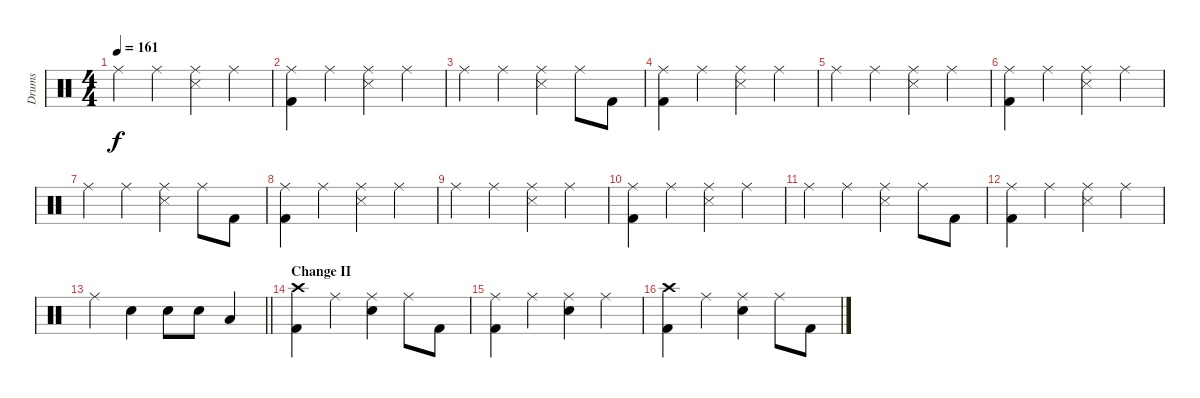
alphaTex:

\track ("Drums" "Drums") {instrument percussion}
\staff {score}
\articulation defaults
\ts (4 4)
\tempo 161
\clef neutral
\ks c "Ride (middle)".4{dy f} "Ride (middle)".4
("Ride (middle)" "Snare (side stick) 3").4 "Ride (middle)".4 |
("Ride (middle)" "Kick (hit) 2").4 "Ride (middle)".4 ("Ride (middle)" "Snare (side stick) 3").4 "Ride (middle)".4 |
"Ride (middle)".4 "Ride (middle)".4 ("Ride (middle)" "Snare (side stick) 3").4 "Ride (middle)".8 "Kick (hit) 2".8 |
("Ride (middle)" "Kick (hit) 2").4 "Ride (middle)".4 ("Ride (middle)" "Snare (side stick) 3").4 "Ride (middle)".4 |
"Ride (middle)".4 "Ride (middle)".4 ("Ride (middle)" "Snare (side stick) 3").4 "Ride (middle)".4 |
("Ride (middle)" "Kick (hit) 2").4 "Ride (middle)".4 ("Ride (middle)" "Snare (side stick) 3").4 "Ride (middle)".4 |
"Ride (middle)".4 "Ride (middle)".4 ("Ride (middle)" "Snare (side stick) 3").4 "Ride (middle)".8 "Kick (hit) 2".8 |
("Ride (middle)" "Kick (hit) 2").4 "Ride (middle)".4 ("Ride (middle)" "Snare (side stick) 3").4 "Ride (middle)".4 |
"Ride (middle)".4 "Ride (middle)".4 ("Ride (middle)" "Snare (side stick) 3").4 "Ride (middle)".4 |
("Ride (middle)" "Kick (hit) 2").4 "Ride (middle)".4 ("Ride (middle)" "Snare (side stick) 3").4 "Ride (middle)".4 |
"Ride (middle)".4 "Ride (middle)".4 ("Ride (middle)" "Snare (side stick) 3").4 "Ride (middle)".8 "Kick (hit) 2".8 |
("Ride (middle)" "Kick (hit) 2").4 "Ride (middle)".4 ("Ride (middle)" "Snare (side stick) 3").4 "Ride (middle)".4 |
\barLineRight lightlight "Ride (middle)".4 "Snare (hit) 2".4 "Snare (hit) 2".8 "Snare (hit) 2".8 "Low Tom (hit)".4
|
\section ("" "Change II")
("Crash high (hit)" "Kick (hit) 2").4 "Ride (middle)".4 ("Ride (middle)" "Snare (hit) 2").4 "Ride (middle)".8 "Kick (hit) 2".8 |
("Ride (middle)" "Kick (hit) 2").4 "Ride (middle)".4 ("Ride (middle)" "Snare (hit) 2").4 "Ride (middle)".4 |
("Crash high (hit)" "Kick (hit) 2").4 "Ride (middle)".4 ("Ride (middle)" "Snare (hit) 2").4 "Ride (middle)".8 "Kick (hit) 2".8
